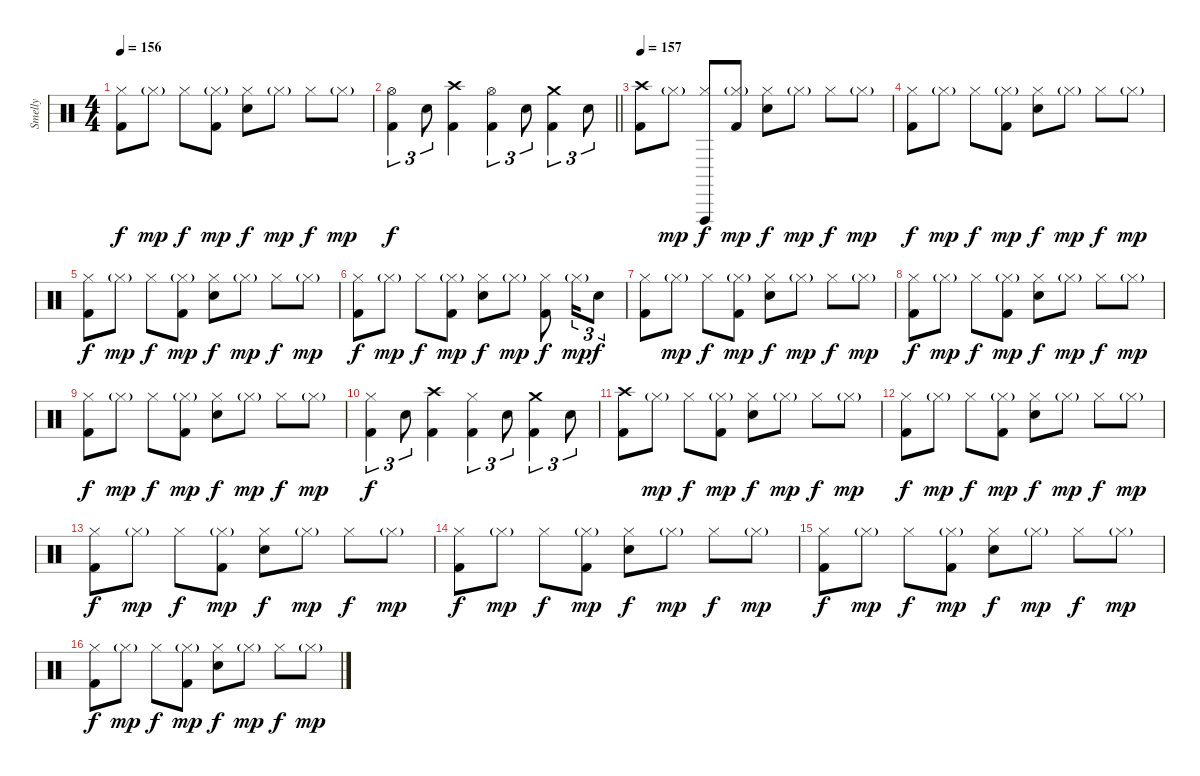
\track ("Smelly" "Smelly") {instrument percussion}
\staff {score}
\articulation defaults
\ts (4 4)
\tempo 156
\clef neutral
\ks c
("Hi-Hat (closed)" "Kick (hit) 2").8{dy f} "Hi-Hat (closed)"{g}.8{dy mp} "Hi-Hat (closed)".8{dy f} ("Hi-Hat (closed)"{g} "Kick (hit) 2").8{dy mp} ("Hi-Hat (closed)" "Electric Snare (hit)").8{dy f} "Hi-Hat (closed)"{g}.8{dy mp} "Hi-Hat (closed)".8{dy f} "Hi-Hat (closed)"{g}.8{dy mp} |
\barLineRight lightlight
("Hi-Hat (open)" "Kick (hit) 2").4{tu (3 2) dy f} "Electric Snare (hit)".8{tu (3 2)} ("Crash high (hit)" "Kick (hit) 2").4 ("Hi-Hat (open)" "Kick (hit) 2").4{tu (3 2)} "Electric Snare (hit)".8{tu (3 2)} ("Crash medium (hit)" "Kick (hit) 2").4{tu (3 2)} "Electric Snare (hit)".8{tu (3 2)} |
\section ("" "")
\tempo 157
("Crash high (hit)" "Kick (hit) 2").8 "Hi-Hat (closed)"{g}.8{dy mp} ("Hi-Hat (closed)" "Vibraslap (hit)").8{dy f} ("Hi-Hat (closed)"{g} "Kick (hit) 2").8{dy mp} ("Hi-Hat (closed)" "Electric Snare (hit)").8{dy f} "Hi-Hat (closed)"{g}.8{dy mp} "Hi-Hat (closed)".8{dy f} "Hi-Hat (closed)"{g}.8{dy mp} |
("Hi-Hat (closed)" "Kick (hit) 2").8{dy f} "Hi-Hat (closed)"{g}.8{dy mp} "Hi-Hat (closed)".8{dy f} ("Hi-Hat (closed)"{g} "Kick (hit) 2").8{dy mp} ("Hi-Hat (closed)" "Electric Snare (hit)").8{dy f} "Hi-Hat (closed)"{g}.8{dy mp} "Hi-Hat (closed)".8{dy f} "Hi-Hat (closed)"{g}.8{dy mp} |
("Hi-Hat (closed)" "Kick (hit) 2").8{dy f} "Hi-Hat (closed)"{g}.8{dy mp} "Hi-Hat (closed)".8{dy f} ("Hi-Hat (closed)"{g} "Kick (hit) 2").8{dy mp} ("Hi-Hat (closed)" "Electric Snare (hit)").8{dy f} "Hi-Hat (closed)"{g}.8{dy mp} "Hi-Hat (closed)".8{dy f} "Hi-Hat (closed)"{g}.8{dy mp} |
("Hi-Hat (closed)" "Kick (hit) 2").8{dy f} "Hi-Hat (closed)"{g}.8{dy mp} "Hi-Hat (closed)".8{dy f} ("Hi-Hat (closed)"{g} "Kick (hit) 2").8{dy mp} ("Hi-Hat (closed)" "Electric Snare (hit)").8{dy f} "Hi-Hat (closed)"{g}.8{dy mp} ("Hi-Hat (closed)" "Kick (hit) 2").8{dy f} "Hi-Hat (closed)"{g}.16{tu (3 2) dy mp} "Electric Snare (hit)".8{tu (3 2) dy f} |
("Hi-Hat (closed)" "Kick (hit) 2").8 "Hi-Hat (closed)"{g}.8{dy mp} "Hi-Hat (closed)".8{dy f} ("Hi-Hat (closed)"{g} "Kick (hit) 2").8{dy mp} ("Hi-Hat (closed)" "Electric Snare (hit)").8{dy f} "Hi-Hat (closed)"{g}.8{dy mp} "Hi-Hat (closed)".8{dy f} "Hi-Hat (closed)"{g}.8{dy mp} |
("Hi-Hat (closed)" "Kick (hit) 2").8{dy f} "Hi-Hat (closed)"{g}.8{dy mp} "Hi-Hat (closed)".8{dy f} ("Hi-Hat (closed)"{g} "Kick (hit) 2").8{dy mp} ("Hi-Hat (closed)" "Electric Snare (hit)").8{dy f} "Hi-Hat (closed)"{g}.8{dy mp} "Hi-Hat (closed)".8{dy f} "Hi-Hat (closed)"{g}.8{dy mp} |
("Hi-Hat (closed)" "Kick (hit) 2").8{dy f} "Hi-Hat (closed)"{g}.8{dy mp} "Hi-Hat (closed)".8{dy f} ("Hi-Hat (closed)"{g} "Kick (hit) 2").8{dy mp} ("Hi-Hat (closed)" "Electric Snare (hit)").8{dy f} "Hi-Hat (closed)"{g}.8{dy mp} "Hi-Hat (closed)".8{dy f} "Hi-Hat (closed)"{g}.8{dy mp} |
("Hi-Hat (closed)" "Kick (hit) 2").4{tu (3 2) dy f} "Electric Snare (hit)".8{tu (3 2)} ("Crash high (hit)" "Kick (hit) 2").4 ("Hi-Hat (closed)" "Kick (hit) 2").4{tu (3 2)} "Electric Snare (hit)".8{tu (3 2)} ("Crash medium (hit)" "Kick (hit) 2").4{tu (3 2)} "Electric Snare (hit)".8{tu (3 2)} |
("Crash high (hit)" "Kick (hit) 2").8 "Hi-Hat (closed)"{g}.8{dy mp} "Hi-Hat (closed)".8{dy f} ("Hi-Hat (closed)"{g} "Kick (hit) 2").8{dy mp} ("Hi-Hat (closed)" "Electric Snare (hit)").8{dy f} "Hi-Hat (closed)"{g}.8{dy mp} "Hi-Hat (closed)".8{dy f} "Hi-Hat (closed)"{g}.8{dy mp} |
("Hi-Hat (closed)" "Kick (hit) 2").8{dy f} "Hi-Hat (closed)"{g}.8{dy mp} "Hi-Hat (closed)".8{dy f} ("Hi-Hat (closed)"{g} "Kick (hit) 2").8{dy mp} ("Hi-Hat (closed)" "Electric Snare (hit)").8{dy f} "Hi-Hat (closed)"{g}.8{dy mp} "Hi-Hat (closed)".8{dy f} "Hi-Hat (closed)"{g}.8{dy mp} |
("Hi-Hat (closed)" "Kick (hit) 2").8{dy f} "Hi-Hat (closed)"{g}.8{dy mp} "Hi-Hat (closed)".8{dy f} ("Hi-Hat (closed)"{g} "Kick (hit) 2").8{dy mp} ("Hi-Hat (closed)" "Electric Snare (hit)").8{dy f} "Hi-Hat (closed)"{g}.8{dy mp} "Hi-Hat (closed)".8{dy f} "Hi-Hat (closed)"{g}.8{dy mp} |
("Hi-Hat (closed)" "Kick (hit) 2").8{dy f} "Hi-Hat (closed)"{g}.8{dy mp} "Hi-Hat (closed)".8{dy f} ("Hi-Hat (closed)"{g} "Kick (hit) 2").8{dy mp} ("Hi-Hat (closed)" "Electric Snare (hit)").8{dy f} "Hi-Hat (closed)"{g}.8{dy mp} "Hi-Hat (closed)".8{dy f} "Hi-Hat (closed)"{g}.8{dy mp} |
("Hi-Hat (closed)" "Kick (hit) 2").8{dy f} "Hi-Hat (closed)"{g}.8{dy mp} "Hi-Hat (closed)".8{dy f} ("Hi-Hat (closed)"{g} "Kick (hit) 2").8{dy mp} ("Hi-Hat (closed)" "Electric Snare (hit)").8{dy f} "Hi-Hat (closed)"{g}.8{dy mp} "Hi-Hat (closed)".8{dy f} "Hi-Hat (closed)"{g}.8{dy mp} |
("Hi-Hat (closed)" "Kick (hit) 2").8{dy f} "Hi-Hat (closed)"{g}.8{dy mp} "Hi-Hat (closed)".8{dy f} ("Hi-Hat (closed)"{g} "Kick (hit) 2").8{dy mp} ("Hi-Hat (closed)" "Electric Snare (hit)").8{dy f} "Hi-Hat (closed)"{g}.8{dy mp} "Hi-Hat (closed)".8{dy f} "Hi-Hat (closed)"{g}.8{dy mp}
